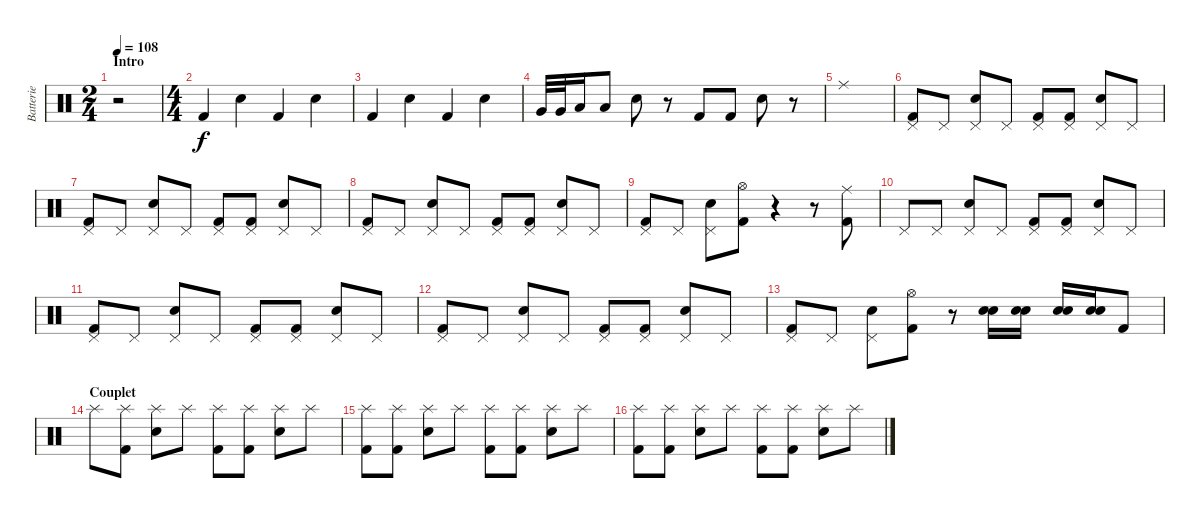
\track ("Batterie" "Batterie") {instrument percussion}
\staff {score}
\articulation defaults
\ts (2 4)
\section ("" "Intro")
\tempo 108
\clef neutral
\ks c
r.2{dy f} |
\ts (4 4)
"Kick (hit) 2".4 "Electric Snare (hit)".4 "Kick (hit) 2".4 "Electric Snare (hit)".4 |
"Kick (hit) 2".4 "Electric Snare (hit)".4 "Kick (hit) 2".4 "Electric Snare (hit)".4 |
"Very Low Tom (hit)".32 "Very Low Tom (hit)".32 "Low Tom (hit)".16 "Low Tom (hit)".8 "Electric Snare (hit)".8 r.8 "Kick (hit) 2".8 "Kick (hit) 2".8 "Electric Snare (hit)".8 r.8 |
"Ride (middle)".1 |
("Pedal Hi-Hat (hit)" "Kick (hit) 2").8 "Pedal Hi-Hat (hit)".8 ("Electric Snare (hit)" "Pedal Hi-Hat (hit)").8 "Pedal Hi-Hat (hit)".8 ("Pedal Hi-Hat (hit)" "Kick (hit) 2").8 ("Pedal Hi-Hat (hit)" "Kick (hit) 2").8 ("Electric Snare (hit)" "Pedal Hi-Hat (hit)").8 "Pedal Hi-Hat (hit)".8 |
("Pedal Hi-Hat (hit)" "Kick (hit) 2").8 "Pedal Hi-Hat (hit)".8 ("Electric Snare (hit)" "Pedal Hi-Hat (hit)").8 "Pedal Hi-Hat (hit)".8 ("Pedal Hi-Hat (hit)" "Kick (hit) 2").8 ("Pedal Hi-Hat (hit)" "Kick (hit) 2").8 ("Electric Snare (hit)" "Pedal Hi-Hat (hit)").8 "Pedal Hi-Hat (hit)".8 |
("Pedal Hi-Hat (hit)" "Kick (hit) 2").8 "Pedal Hi-Hat (hit)".8 ("Electric Snare (hit)" "Pedal Hi-Hat (hit)").8 "Pedal Hi-Hat (hit)".8 ("Pedal Hi-Hat (hit)" "Kick (hit) 2").8 ("Pedal Hi-Hat (hit)" "Kick (hit) 2").8 ("Electric Snare (hit)" "Pedal Hi-Hat (hit)").8 "Pedal Hi-Hat (hit)".8 |
("Pedal Hi-Hat (hit)" "Kick (hit) 2").8 "Pedal Hi-Hat (hit)".8 ("Electric Snare (hit)" "Pedal Hi-Hat (hit)").8 ("Hi-Hat (open)" "Kick (hit) 2").8 r.4 r.8 ("Ride (middle)" "Kick (hit) 2").8 |
"Pedal Hi-Hat (hit)".8 "Pedal Hi-Hat (hit)".8 ("Electric Snare (hit)" "Pedal Hi-Hat (hit)").8 "Pedal Hi-Hat (hit)".8 ("Pedal Hi-Hat (hit)" "Kick (hit) 2").8 ("Pedal Hi-Hat (hit)" "Kick (hit) 2").8 ("Electric Snare (hit)" "Pedal Hi-Hat (hit)").8 "Pedal Hi-Hat (hit)".8 |
("Pedal Hi-Hat (hit)" "Kick (hit) 2").8 "Pedal Hi-Hat (hit)".8 ("Electric Snare (hit)" "Pedal Hi-Hat (hit)").8 "Pedal Hi-Hat (hit)".8 ("Pedal Hi-Hat (hit)" "Kick (hit) 2").8 ("Pedal Hi-Hat (hit)" "Kick (hit) 2").8 ("Electric Snare (hit)" "Pedal Hi-Hat (hit)").8 "Pedal Hi-Hat (hit)".8 |
("Pedal Hi-Hat (hit)" "Kick (hit) 2").8 "Pedal Hi-Hat (hit)".8 ("Electric Snare (hit)" "Pedal Hi-Hat (hit)").8 "Pedal Hi-Hat (hit)".8 ("Pedal Hi-Hat (hit)" "Kick (hit) 2").8 ("Pedal Hi-Hat (hit)" "Kick (hit) 2").8 ("Electric Snare (hit)" "Pedal Hi-Hat (hit)").8 "Pedal Hi-Hat (hit)".8 |
("Pedal Hi-Hat (hit)" "Kick (hit) 2").8 "Pedal Hi-Hat (hit)".8 ("Electric Snare (hit)" "Pedal Hi-Hat (hit)").8 ("Hi-Hat (open)" "Kick (hit) 2").8 r.8 ("Electric Snare (hit)" "Electric Snare (hit)").16 ("Electric Snare (hit)" "Electric Snare (hit)").16 ("Electric Snare (hit)" "Electric Snare (hit)").16 ("Electric Snare (hit)" "Electric Snare (hit)").16 "Kick (hit) 2".8 |
\section ("" "Couplet")
"Splash (hit)".8 ("Splash (hit)" "Kick (hit) 2").8 ("Electric Snare (hit)" "Splash (hit)").8 "Splash (hit)".8 ("Splash (hit)" "Kick (hit) 2").8 ("Splash (hit)" "Kick (hit) 2").8 ("Electric Snare (hit)" "Splash (hit)").8 "Splash (hit)".8 |
("Splash (hit)" "Kick (hit) 2").8 ("Splash (hit)" "Kick (hit) 2").8 ("Electric Snare (hit)" "Splash (hit)").8 "Splash (hit)".8 ("Splash (hit)" "Kick (hit) 2").8 ("Splash (hit)" "Kick (hit) 2").8 ("Electric Snare (hit)" "Splash (hit)").8 "Splash (hit)".8 |
("Splash (hit)" "Kick (hit) 2").8 ("Splash (hit)" "Kick (hit) 2").8 ("Electric Snare (hit)" "Splash (hit)").8 "Splash (hit)".8 ("Splash (hit)" "Kick (hit) 2").8 ("Splash (hit)" "Kick (hit) 2").8 ("Electric Snare (hit)" "Splash (hit)").8 "Splash (hit)".8
